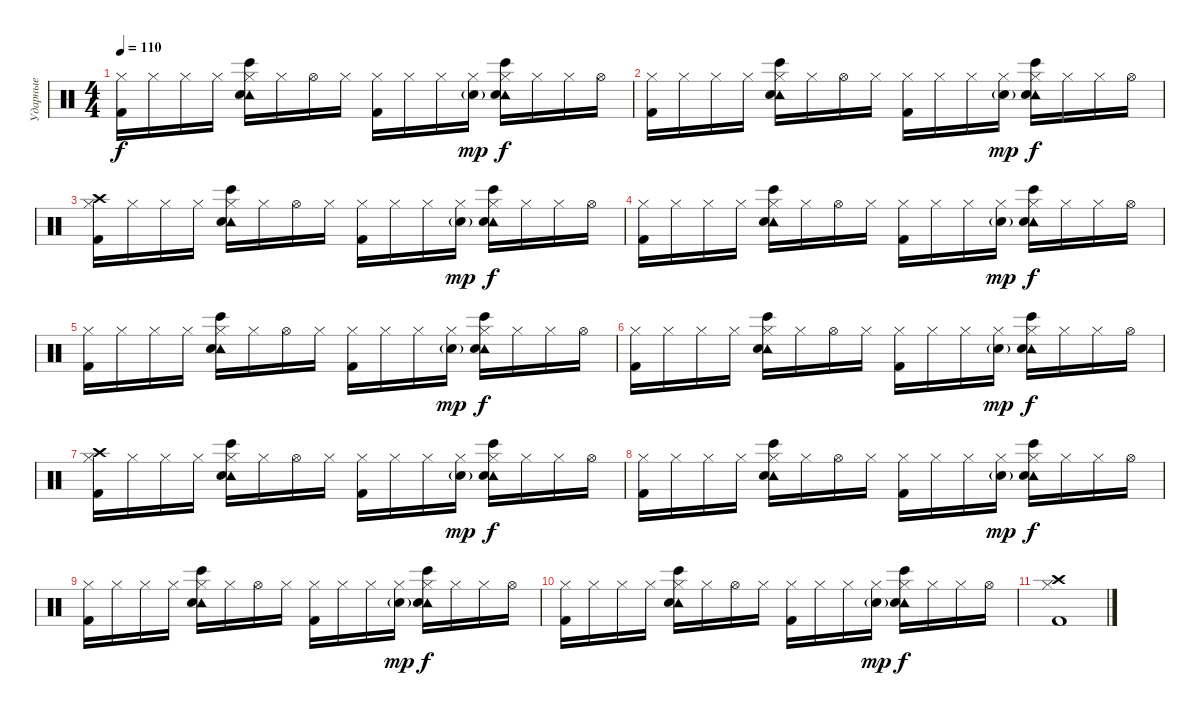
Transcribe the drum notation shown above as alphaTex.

\track ("Ударные" "Ударные") {instrument percussion}
\staff {score}
\articulation defaults
\ts (4 4)
\tempo 110
\clef neutral
\ks c
("Hi-Hat (closed)" "Kick (hit) 2").16{dy f} "Hi-Hat (closed)".16 "Hi-Hat (closed)".16 "Hi-Hat (closed)".16 ("Hi-Hat (closed)" "Tambourine (hit)" "Electric Snare (hit)" "Bongo High (hit)").16 "Hi-Hat (closed)".16 "Hi-Hat (open)".16 "Hi-Hat (closed)".16 ("Hi-Hat (closed)" "Kick (hit) 2").16 "Hi-Hat (closed)".16 "Hi-Hat (closed)".16 ("Hi-Hat (closed)" "Electric Snare (hit)"{g}).16{dy mp} ("Hi-Hat (closed)" "Tambourine (hit)" "Electric Snare (hit)" "Bongo High (hit)").16{dy f} "Hi-Hat (closed)".16 "Hi-Hat (closed)".16 "Hi-Hat (open)".16 |
("Hi-Hat (closed)" "Kick (hit) 2").16 "Hi-Hat (closed)".16 "Hi-Hat (closed)".16 "Hi-Hat (closed)".16 ("Hi-Hat (closed)" "Tambourine (hit)" "Electric Snare (hit)" "Bongo High (hit)").16 "Hi-Hat (closed)".16 "Hi-Hat (open)".16 "Hi-Hat (closed)".16 ("Hi-Hat (closed)" "Kick (hit) 2").16 "Hi-Hat (closed)".16 "Hi-Hat (closed)".16 ("Hi-Hat (closed)" "Electric Snare (hit)"{g}).16{dy mp} ("Hi-Hat (closed)" "Tambourine (hit)" "Electric Snare (hit)" "Bongo High (hit)").16{dy f} "Hi-Hat (closed)".16 "Hi-Hat (closed)".16 "Hi-Hat (open)".16 |
("Crash high (hit)" "Hi-Hat (closed)" "Kick (hit) 2").16 "Hi-Hat (closed)".16 "Hi-Hat (closed)".16 "Hi-Hat (closed)".16 ("Hi-Hat (closed)" "Tambourine (hit)" "Electric Snare (hit)" "Bongo High (hit)").16 "Hi-Hat (closed)".16 "Hi-Hat (open)".16 "Hi-Hat (closed)".16 ("Hi-Hat (closed)" "Kick (hit) 2").16 "Hi-Hat (closed)".16 "Hi-Hat (closed)".16 ("Hi-Hat (closed)" "Electric Snare (hit)"{g}).16{dy mp} ("Hi-Hat (closed)" "Tambourine (hit)" "Electric Snare (hit)" "Bongo High (hit)").16{dy f} "Hi-Hat (closed)".16 "Hi-Hat (closed)".16 "Hi-Hat (open)".16 |
("Hi-Hat (closed)" "Kick (hit) 2").16 "Hi-Hat (closed)".16 "Hi-Hat (closed)".16 "Hi-Hat (closed)".16 ("Hi-Hat (closed)" "Tambourine (hit)" "Electric Snare (hit)" "Bongo High (hit)").16 "Hi-Hat (closed)".16 "Hi-Hat (open)".16 "Hi-Hat (closed)".16 ("Hi-Hat (closed)" "Kick (hit) 2").16 "Hi-Hat (closed)".16 "Hi-Hat (closed)".16 ("Hi-Hat (closed)" "Electric Snare (hit)"{g}).16{dy mp} ("Hi-Hat (closed)" "Tambourine (hit)" "Electric Snare (hit)" "Bongo High (hit)").16{dy f} "Hi-Hat (closed)".16 "Hi-Hat (closed)".16 "Hi-Hat (open)".16 |
("Hi-Hat (closed)" "Kick (hit) 2").16 "Hi-Hat (closed)".16 "Hi-Hat (closed)".16 "Hi-Hat (closed)".16 ("Hi-Hat (closed)" "Tambourine (hit)" "Electric Snare (hit)" "Bongo High (hit)").16 "Hi-Hat (closed)".16 "Hi-Hat (open)".16 "Hi-Hat (closed)".16 ("Hi-Hat (closed)" "Kick (hit) 2").16 "Hi-Hat (closed)".16 "Hi-Hat (closed)".16 ("Hi-Hat (closed)" "Electric Snare (hit)"{g}).16{dy mp} ("Hi-Hat (closed)" "Tambourine (hit)" "Electric Snare (hit)" "Bongo High (hit)").16{dy f} "Hi-Hat (closed)".16 "Hi-Hat (closed)".16 "Hi-Hat (open)".16 |
("Hi-Hat (closed)" "Kick (hit) 2").16 "Hi-Hat (closed)".16 "Hi-Hat (closed)".16 "Hi-Hat (closed)".16 ("Hi-Hat (closed)" "Tambourine (hit)" "Electric Snare (hit)" "Bongo High (hit)").16 "Hi-Hat (closed)".16 "Hi-Hat (open)".16 "Hi-Hat (closed)".16 ("Hi-Hat (closed)" "Kick (hit) 2").16 "Hi-Hat (closed)".16 "Hi-Hat (closed)".16 ("Hi-Hat (closed)" "Electric Snare (hit)"{g}).16{dy mp} ("Hi-Hat (closed)" "Tambourine (hit)" "Electric Snare (hit)" "Bongo High (hit)").16{dy f} "Hi-Hat (closed)".16 "Hi-Hat (closed)".16 "Hi-Hat (open)".16 |
("Crash high (hit)" "Hi-Hat (closed)" "Kick (hit) 2").16 "Hi-Hat (closed)".16 "Hi-Hat (closed)".16 "Hi-Hat (closed)".16 ("Hi-Hat (closed)" "Tambourine (hit)" "Electric Snare (hit)" "Bongo High (hit)").16 "Hi-Hat (closed)".16 "Hi-Hat (open)".16 "Hi-Hat (closed)".16 ("Hi-Hat (closed)" "Kick (hit) 2").16 "Hi-Hat (closed)".16 "Hi-Hat (closed)".16 ("Hi-Hat (closed)" "Electric Snare (hit)"{g}).16{dy mp} ("Hi-Hat (closed)" "Tambourine (hit)" "Electric Snare (hit)" "Bongo High (hit)").16{dy f} "Hi-Hat (closed)".16 "Hi-Hat (closed)".16 "Hi-Hat (open)".16 |
("Hi-Hat (closed)" "Kick (hit) 2").16 "Hi-Hat (closed)".16 "Hi-Hat (closed)".16 "Hi-Hat (closed)".16 ("Hi-Hat (closed)" "Tambourine (hit)" "Electric Snare (hit)" "Bongo High (hit)").16 "Hi-Hat (closed)".16 "Hi-Hat (open)".16 "Hi-Hat (closed)".16 ("Hi-Hat (closed)" "Kick (hit) 2").16 "Hi-Hat (closed)".16 "Hi-Hat (closed)".16 ("Hi-Hat (closed)" "Electric Snare (hit)"{g}).16{dy mp} ("Hi-Hat (closed)" "Tambourine (hit)" "Electric Snare (hit)" "Bongo High (hit)").16{dy f} "Hi-Hat (closed)".16 "Hi-Hat (closed)".16 "Hi-Hat (open)".16 |
("Hi-Hat (closed)" "Kick (hit) 2").16 "Hi-Hat (closed)".16 "Hi-Hat (closed)".16 "Hi-Hat (closed)".16 ("Hi-Hat (closed)" "Tambourine (hit)" "Electric Snare (hit)" "Bongo High (hit)").16 "Hi-Hat (closed)".16 "Hi-Hat (open)".16 "Hi-Hat (closed)".16 ("Hi-Hat (closed)" "Kick (hit) 2").16 "Hi-Hat (closed)".16 "Hi-Hat (closed)".16 ("Hi-Hat (closed)" "Electric Snare (hit)"{g}).16{dy mp} ("Hi-Hat (closed)" "Tambourine (hit)" "Electric Snare (hit)" "Bongo High (hit)").16{dy f} "Hi-Hat (closed)".16 "Hi-Hat (closed)".16 "Hi-Hat (open)".16 |
("Hi-Hat (closed)" "Kick (hit) 2").16 "Hi-Hat (closed)".16 "Hi-Hat (closed)".16 "Hi-Hat (closed)".16 ("Hi-Hat (closed)" "Tambourine (hit)" "Electric Snare (hit)" "Bongo High (hit)").16 "Hi-Hat (closed)".16 "Hi-Hat (open)".16 "Hi-Hat (closed)".16 ("Hi-Hat (closed)" "Kick (hit) 2").16 "Hi-Hat (closed)".16 "Hi-Hat (closed)".16 ("Hi-Hat (closed)" "Electric Snare (hit)"{g}).16{dy mp} ("Hi-Hat (closed)" "Tambourine (hit)" "Electric Snare (hit)" "Bongo High (hit)").16{dy f} "Hi-Hat (closed)".16 "Hi-Hat (closed)".16 "Hi-Hat (open)".16 |
("Crash high (hit)" "Hi-Hat (closed)" "Kick (hit) 2").1
